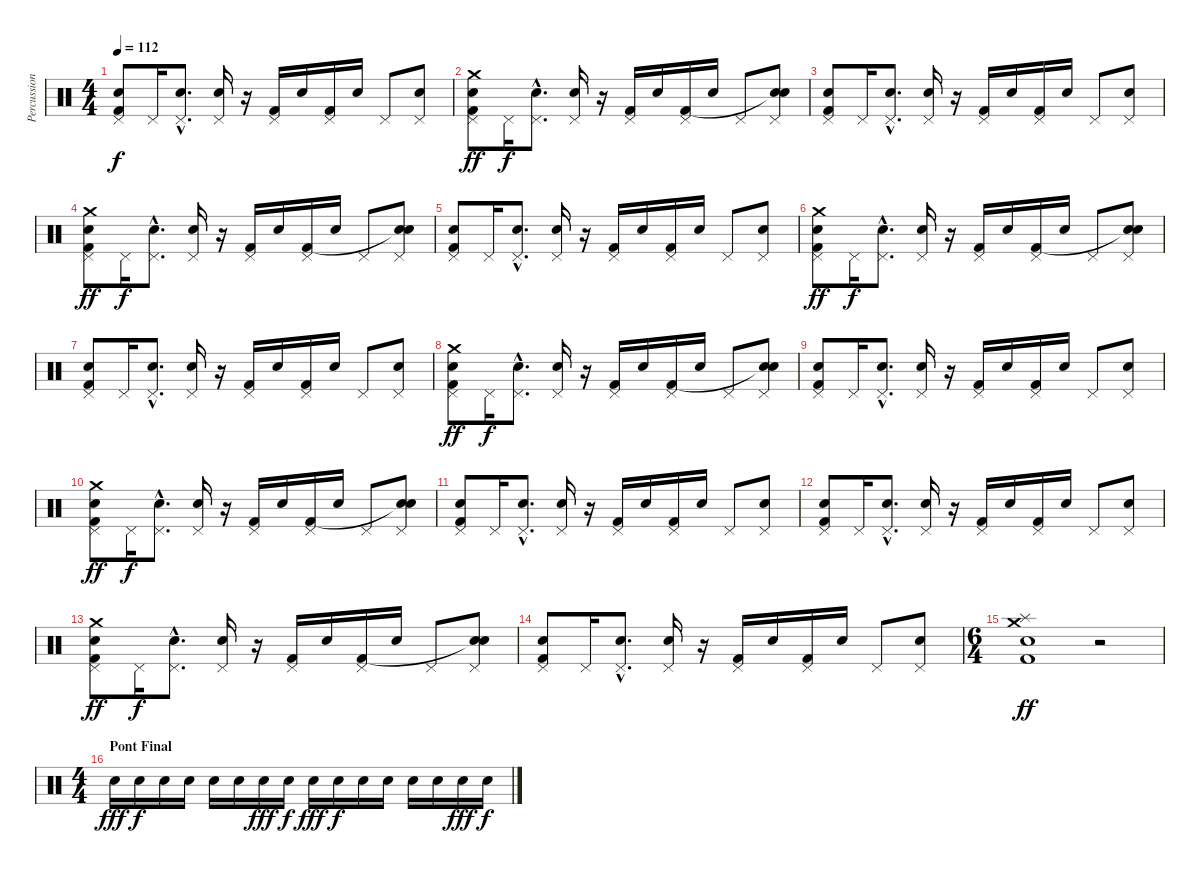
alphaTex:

\track ("Percussions" "Percussion") {instrument percussion}
\staff {score}
\articulation defaults
\ts (4 4)
\tempo 112
\clef neutral
\ks c
("Pedal Hi-Hat (hit)" "Kick (hit) 2" "Electric Snare (hit)").8{dy f} "Pedal Hi-Hat (hit)".16 ("Pedal Hi-Hat (hit)"{hac} "Electric Snare (hit)"{hac}).8{d} ("Pedal Hi-Hat (hit)" "Electric Snare (hit)").16 r.16 ("Pedal Hi-Hat (hit)" "Kick (hit) 2").16 "Electric Snare (hit)".16 ("Pedal Hi-Hat (hit)" "Kick (hit) 2").16 "Electric Snare (hit)".16 "Pedal Hi-Hat (hit)".8 ("Pedal Hi-Hat (hit)" "Electric Snare (hit)").8 |
("Pedal Hi-Hat (hit)" "Crash medium (hit)" "Kick (hit) 2" "Electric Snare (hit)").8{dy ff} "Pedal Hi-Hat (hit)".16{dy f} ("Pedal Hi-Hat (hit)"{hac} "Electric Snare (hit)"{hac}).8{d} ("Pedal Hi-Hat (hit)" "Electric Snare (hit)").16 r.16 ("Pedal Hi-Hat (hit)" "Kick (hit) 2").16 "Electric Snare (hit)".16 ("Pedal Hi-Hat (hit)" "Kick (hit) 2").16 "Electric Snare (hit)".16 "Pedal Hi-Hat (hit)".8 ("Pedal Hi-Hat (hit)" "Snare (hit)"{t} "Electric Snare (hit)").8 |
("Pedal Hi-Hat (hit)" "Kick (hit) 2" "Electric Snare (hit)").8 "Pedal Hi-Hat (hit)".16 ("Pedal Hi-Hat (hit)"{hac} "Electric Snare (hit)"{hac}).8{d} ("Pedal Hi-Hat (hit)" "Electric Snare (hit)").16 r.16 ("Pedal Hi-Hat (hit)" "Kick (hit) 2").16 "Electric Snare (hit)".16 ("Pedal Hi-Hat (hit)" "Kick (hit) 2").16 "Electric Snare (hit)".16 "Pedal Hi-Hat (hit)".8 ("Pedal Hi-Hat (hit)" "Electric Snare (hit)").8 |
("Pedal Hi-Hat (hit)" "Crash medium (hit)" "Kick (hit) 2" "Electric Snare (hit)").8{dy ff} "Pedal Hi-Hat (hit)".16{dy f} ("Pedal Hi-Hat (hit)"{hac} "Electric Snare (hit)"{hac}).8{d} ("Pedal Hi-Hat (hit)" "Electric Snare (hit)").16 r.16 ("Pedal Hi-Hat (hit)" "Kick (hit) 2").16 "Electric Snare (hit)".16 ("Pedal Hi-Hat (hit)" "Kick (hit) 2").16 "Electric Snare (hit)".16 "Pedal Hi-Hat (hit)".8 ("Pedal Hi-Hat (hit)" "Snare (hit)"{t} "Electric Snare (hit)").8 |
("Pedal Hi-Hat (hit)" "Kick (hit) 2" "Electric Snare (hit)").8 "Pedal Hi-Hat (hit)".16 ("Pedal Hi-Hat (hit)"{hac} "Electric Snare (hit)"{hac}).8{d} ("Pedal Hi-Hat (hit)" "Electric Snare (hit)").16 r.16 ("Pedal Hi-Hat (hit)" "Kick (hit) 2").16 "Electric Snare (hit)".16 ("Pedal Hi-Hat (hit)" "Kick (hit) 2").16 "Electric Snare (hit)".16 "Pedal Hi-Hat (hit)".8 ("Pedal Hi-Hat (hit)" "Electric Snare (hit)").8 |
("Pedal Hi-Hat (hit)" "Crash medium (hit)" "Kick (hit) 2" "Electric Snare (hit)").8{dy ff} "Pedal Hi-Hat (hit)".16{dy f} ("Pedal Hi-Hat (hit)"{hac} "Electric Snare (hit)"{hac}).8{d} ("Pedal Hi-Hat (hit)" "Electric Snare (hit)").16 r.16 ("Pedal Hi-Hat (hit)" "Kick (hit) 2").16 "Electric Snare (hit)".16 ("Pedal Hi-Hat (hit)" "Kick (hit) 2").16 "Electric Snare (hit)".16 "Pedal Hi-Hat (hit)".8 ("Pedal Hi-Hat (hit)" "Snare (hit)"{t} "Electric Snare (hit)").8 |
("Pedal Hi-Hat (hit)" "Kick (hit) 2" "Electric Snare (hit)").8 "Pedal Hi-Hat (hit)".16 ("Pedal Hi-Hat (hit)"{hac} "Electric Snare (hit)"{hac}).8{d} ("Pedal Hi-Hat (hit)" "Electric Snare (hit)").16 r.16 ("Pedal Hi-Hat (hit)" "Kick (hit) 2").16 "Electric Snare (hit)".16 ("Pedal Hi-Hat (hit)" "Kick (hit) 2").16 "Electric Snare (hit)".16 "Pedal Hi-Hat (hit)".8 ("Pedal Hi-Hat (hit)" "Electric Snare (hit)").8 |
("Pedal Hi-Hat (hit)" "Crash medium (hit)" "Kick (hit) 2" "Electric Snare (hit)").8{dy ff} "Pedal Hi-Hat (hit)".16{dy f} ("Pedal Hi-Hat (hit)"{hac} "Electric Snare (hit)"{hac}).8{d} ("Pedal Hi-Hat (hit)" "Electric Snare (hit)").16 r.16 ("Pedal Hi-Hat (hit)" "Kick (hit) 2").16 "Electric Snare (hit)".16 ("Pedal Hi-Hat (hit)" "Kick (hit) 2").16 "Electric Snare (hit)".16 "Pedal Hi-Hat (hit)".8 ("Pedal Hi-Hat (hit)" "Snare (hit)"{t} "Electric Snare (hit)").8 |
("Pedal Hi-Hat (hit)" "Kick (hit) 2" "Electric Snare (hit)").8 "Pedal Hi-Hat (hit)".16 ("Pedal Hi-Hat (hit)"{hac} "Electric Snare (hit)"{hac}).8{d} ("Pedal Hi-Hat (hit)" "Electric Snare (hit)").16 r.16 ("Pedal Hi-Hat (hit)" "Kick (hit) 2").16 "Electric Snare (hit)".16 ("Pedal Hi-Hat (hit)" "Kick (hit) 2").16 "Electric Snare (hit)".16 "Pedal Hi-Hat (hit)".8 ("Pedal Hi-Hat (hit)" "Electric Snare (hit)").8 |
("Pedal Hi-Hat (hit)" "Crash medium (hit)" "Kick (hit) 2" "Electric Snare (hit)").8{dy ff} "Pedal Hi-Hat (hit)".16{dy f} ("Pedal Hi-Hat (hit)"{hac} "Electric Snare (hit)"{hac}).8{d} ("Pedal Hi-Hat (hit)" "Electric Snare (hit)").16 r.16 ("Pedal Hi-Hat (hit)" "Kick (hit) 2").16 "Electric Snare (hit)".16 ("Pedal Hi-Hat (hit)" "Kick (hit) 2").16 "Electric Snare (hit)".16 "Pedal Hi-Hat (hit)".8 ("Pedal Hi-Hat (hit)" "Snare (hit)"{t} "Electric Snare (hit)").8 |
("Pedal Hi-Hat (hit)" "Kick (hit) 2" "Electric Snare (hit)").8 "Pedal Hi-Hat (hit)".16 ("Pedal Hi-Hat (hit)"{hac} "Electric Snare (hit)"{hac}).8{d} ("Pedal Hi-Hat (hit)" "Electric Snare (hit)").16 r.16 ("Pedal Hi-Hat (hit)" "Kick (hit) 2").16 "Electric Snare (hit)".16 ("Pedal Hi-Hat (hit)" "Kick (hit) 2").16 "Electric Snare (hit)".16 "Pedal Hi-Hat (hit)".8 ("Pedal Hi-Hat (hit)" "Electric Snare (hit)").8 |
("Pedal Hi-Hat (hit)" "Kick (hit) 2" "Electric Snare (hit)").8 "Pedal Hi-Hat (hit)".16 ("Pedal Hi-Hat (hit)"{hac} "Electric Snare (hit)"{hac}).8{d} ("Pedal Hi-Hat (hit)" "Electric Snare (hit)").16 r.16 ("Pedal Hi-Hat (hit)" "Kick (hit) 2").16 "Electric Snare (hit)".16 ("Pedal Hi-Hat (hit)" "Kick (hit) 2").16 "Electric Snare (hit)".16 "Pedal Hi-Hat (hit)".8 ("Pedal Hi-Hat (hit)" "Electric Snare (hit)").8 |
("Pedal Hi-Hat (hit)" "Crash medium (hit)" "Kick (hit) 2" "Electric Snare (hit)").8{dy ff} "Pedal Hi-Hat (hit)".16{dy f} ("Pedal Hi-Hat (hit)"{hac} "Electric Snare (hit)"{hac}).8{d} ("Pedal Hi-Hat (hit)" "Electric Snare (hit)").16 r.16 ("Pedal Hi-Hat (hit)" "Kick (hit) 2").16 "Electric Snare (hit)".16 ("Pedal Hi-Hat (hit)" "Kick (hit) 2").16 "Electric Snare (hit)".16 "Pedal Hi-Hat (hit)".8 ("Pedal Hi-Hat (hit)" "Snare (hit)"{t} "Electric Snare (hit)").8 |
("Pedal Hi-Hat (hit)" "Kick (hit) 2" "Electric Snare (hit)").8 "Pedal Hi-Hat (hit)".16 ("Pedal Hi-Hat (hit)"{hac} "Electric Snare (hit)"{hac}).8{d} ("Pedal Hi-Hat (hit)" "Electric Snare (hit)").16 r.16 ("Pedal Hi-Hat (hit)" "Kick (hit) 2").16 "Electric Snare (hit)".16 ("Pedal Hi-Hat (hit)" "Kick (hit) 2").16 "Electric Snare (hit)".16 "Pedal Hi-Hat (hit)".8 ("Pedal Hi-Hat (hit)" "Electric Snare (hit)").8 |
\ts (6 4)
("Splash (hit)" "Crash medium (hit)" "Kick (hit) 2" "Electric Snare (hit)").1{dy ff} r.2 |
\ts (4 4)
\section ("" "Pont Final")
"Electric Snare (hit)".16{dy fff} "Electric Snare (hit)".16{dy f} "Electric Snare (hit)".16 "Electric Snare (hit)".16 "Electric Snare (hit)".16 "Electric Snare (hit)".16 "Electric Snare (hit)".16{dy fff} "Electric Snare (hit)".16{dy f} "Electric Snare (hit)".16{dy fff} "Electric Snare (hit)".16{dy f} "Electric Snare (hit)".16 "Electric Snare (hit)".16 "Electric Snare (hit)".16 "Electric Snare (hit)".16 "Electric Snare (hit)".16{dy fff} "Electric Snare (hit)".16{dy f}
